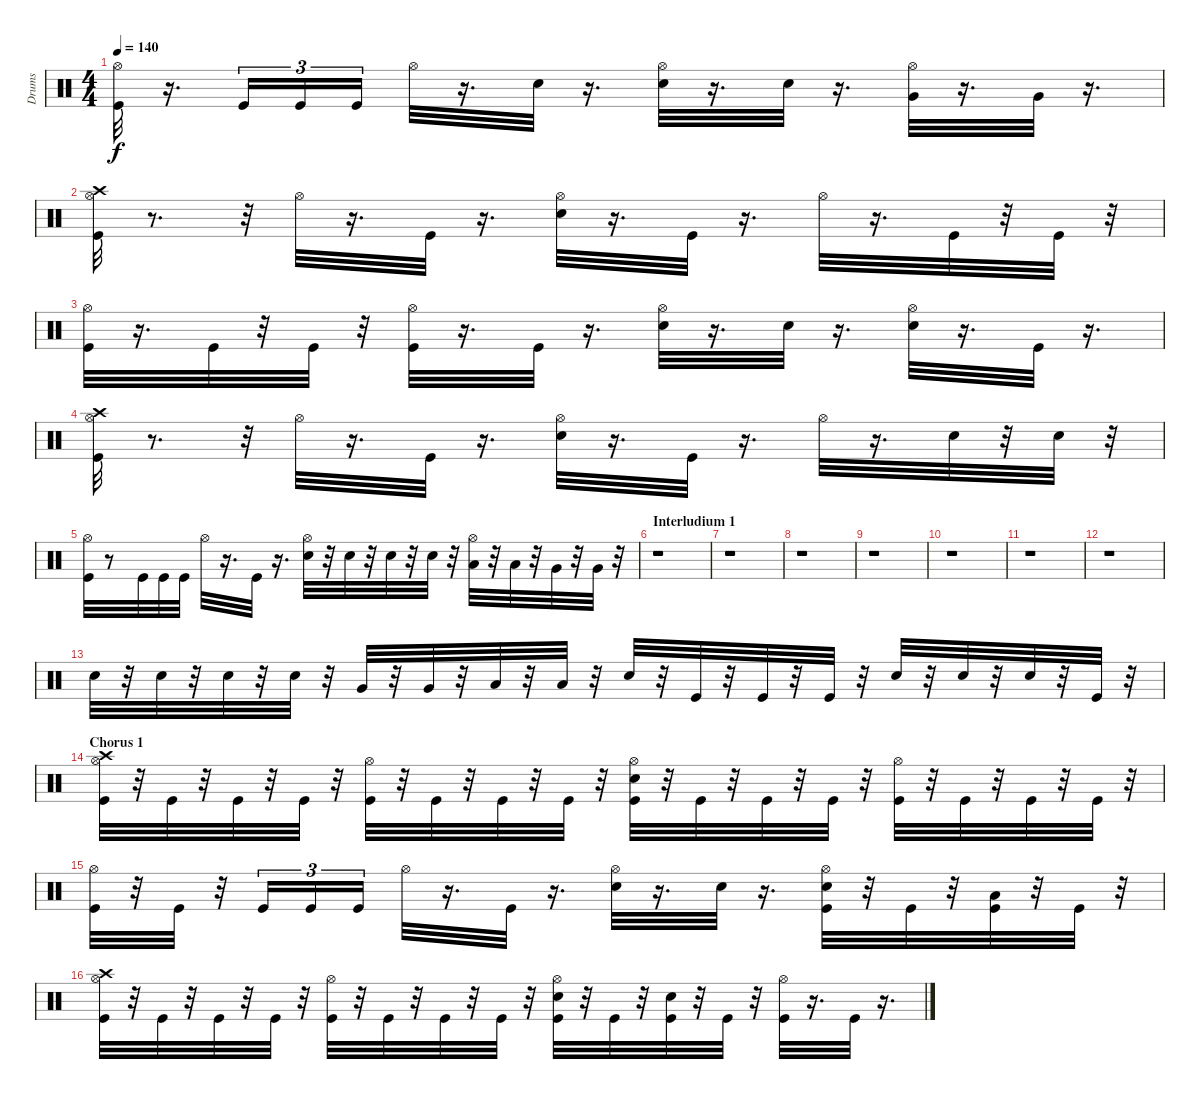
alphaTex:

\track ("Drums" "Drums") {instrument percussion}
\staff {score}
\articulation defaults
\ts (4 4)
\tempo 140
\clef neutral
\ks c
("Hi-Hat (open)" "Kick (hit)").32{dy f} r.16{d} "Kick (hit)".16{tu (3 2)} "Kick (hit)".16{tu (3 2)} "Kick (hit)".16{tu (3 2)} "Hi-Hat (open)".32 r.16{d} "Electric Snare (hit)".32 r.16{d} ("Hi-Hat (open)" "Electric Snare (hit)").32 r.16{d} "Electric Snare (hit)".32 r.16{d} ("Hi-Hat (open)" "Very Low Tom (hit)").32 r.16{d} "Very Low Tom (hit)".32 r.16{d} |
("Hi-Hat (open)" "Crash high (hit)" "Kick (hit)").32 r.8{d} r.32 "Hi-Hat (open)".32 r.16{d} "Kick (hit)".32 r.16{d} ("Hi-Hat (open)" "Electric Snare (hit)").32 r.16{d} "Kick (hit)".32 r.16{d} "Hi-Hat (open)".32 r.16{d} "Kick (hit)".32 r.32 "Kick (hit)".32 r.32 |
("Hi-Hat (open)" "Kick (hit)").32 r.16{d} "Kick (hit)".32 r.32 "Kick (hit)".32 r.32 ("Hi-Hat (open)" "Kick (hit)").32 r.16{d} "Kick (hit)".32 r.16{d} ("Hi-Hat (open)" "Electric Snare (hit)").32 r.16{d} "Electric Snare (hit)".32 r.16{d} ("Hi-Hat (open)" "Electric Snare (hit)").32 r.16{d} "Kick (hit)".32 r.16{d} |
("Hi-Hat (open)" "Crash high (hit)" "Kick (hit)").32 r.8{d} r.32 "Hi-Hat (open)".32 r.16{d} "Kick (hit)".32 r.16{d} ("Hi-Hat (open)" "Electric Snare (hit)").32 r.16{d} "Kick (hit)".32 r.16{d} "Hi-Hat (open)".32 r.16{d} "Electric Snare (hit)".32 r.32 "Electric Snare (hit)".32 r.32 |
("Hi-Hat (open)" "Kick (hit)").32 r.8 "Kick (hit)".32 "Kick (hit)".32 "Kick (hit)".32 "Hi-Hat (open)".32 r.16{d} "Kick (hit)".32 r.16{d} ("Hi-Hat (open)" "Electric Snare (hit)").32 r.32 "Electric Snare (hit)".32 r.32 "Electric Snare (hit)".32 r.32 "Electric Snare (hit)".32 r.32 ("Hi-Hat (open)" "Low Tom (hit)").32 r.32 "Low Tom (hit)".32 r.32 "Very Low Tom (hit)".32 r.32 "Very Low Tom (hit)".32 r.32 |
\section ("" "Interludium 1")
r.1 |
r.1 |
r.1 |
r.1 |
r.1 |
r.1 |
r.1 |
"Electric Snare (hit)".32 r.32 "Electric Snare (hit)".32 r.32 "Electric Snare (hit)".32 r.32 "Electric Snare (hit)".32 r.32 "Very Low Tom (hit)".32 r.32 "Very Low Tom (hit)".32 r.32 "Low Floor Tom (hit)".32 r.32 "Low Floor Tom (hit)".32 r.32 "Electric Snare (hit)".32 r.32 "Kick (hit)".32 r.32 "Kick (hit)".32 r.32 "Kick (hit)".32 r.32 "Electric Snare (hit)".32 r.32 "Electric Snare (hit)".32 r.32 "Electric Snare (hit)".32 r.32 "Kick (hit)".32 r.32 |
\section ("" "Chorus 1")
("Hi-Hat (open)" "Crash high (hit)" "Kick (hit)").32 r.32 "Kick (hit)".32 r.32 "Kick (hit)".32 r.32 "Kick (hit)".32 r.32 ("Hi-Hat (open)" "Kick (hit)").32 r.32 "Kick (hit)".32 r.32 "Kick (hit)".32 r.32 "Kick (hit)".32 r.32 ("Kick (hit)" "Hi-Hat (open)" "Electric Snare (hit)").32 r.32 "Kick (hit)".32 r.32 "Kick (hit)".32 r.32 "Kick (hit)".32 r.32 ("Kick (hit)" "Hi-Hat (open)").32 r.32 "Kick (hit)".32 r.32 "Kick (hit)".32 r.32 "Kick (hit)".32 r.32 |
("Hi-Hat (open)" "Kick (hit)").32 r.32 "Kick (hit)".32 r.32 "Kick (hit)".16{tu (3 2)} "Kick (hit)".16{tu (3 2)} "Kick (hit)".16{tu (3 2)} "Hi-Hat (open)".32 r.16{d} "Kick (hit)".32 r.16{d} ("Hi-Hat (open)" "Electric Snare (hit)").32 r.16{d} "Electric Snare (hit)".32 r.16{d} ("Electric Snare (hit)" "Hi-Hat (open)" "Kick (hit)").32 r.32 "Kick (hit)".32 r.32 ("Low Floor Tom (hit)" "Kick (hit)").32 r.32 "Kick (hit)".32 r.32 |
("Crash high (hit)" "Hi-Hat (open)" "Kick (hit)").32 r.32 "Kick (hit)".32 r.32 "Kick (hit)".32 r.32 "Kick (hit)".32 r.32 ("Kick (hit)" "Hi-Hat (open)").32 r.32 "Kick (hit)".32 r.32 "Kick (hit)".32 r.32 "Kick (hit)".32 r.32 ("Kick (hit)" "Hi-Hat (open)" "Electric Snare (hit)").32 r.32 "Kick (hit)".32 r.32 ("Electric Snare (hit)" "Kick (hit)").32 r.32 "Kick (hit)".32 r.32 ("Hi-Hat (open)" "Kick (hit)").32 r.16{d} "Kick (hit)".32 r.16{d}
